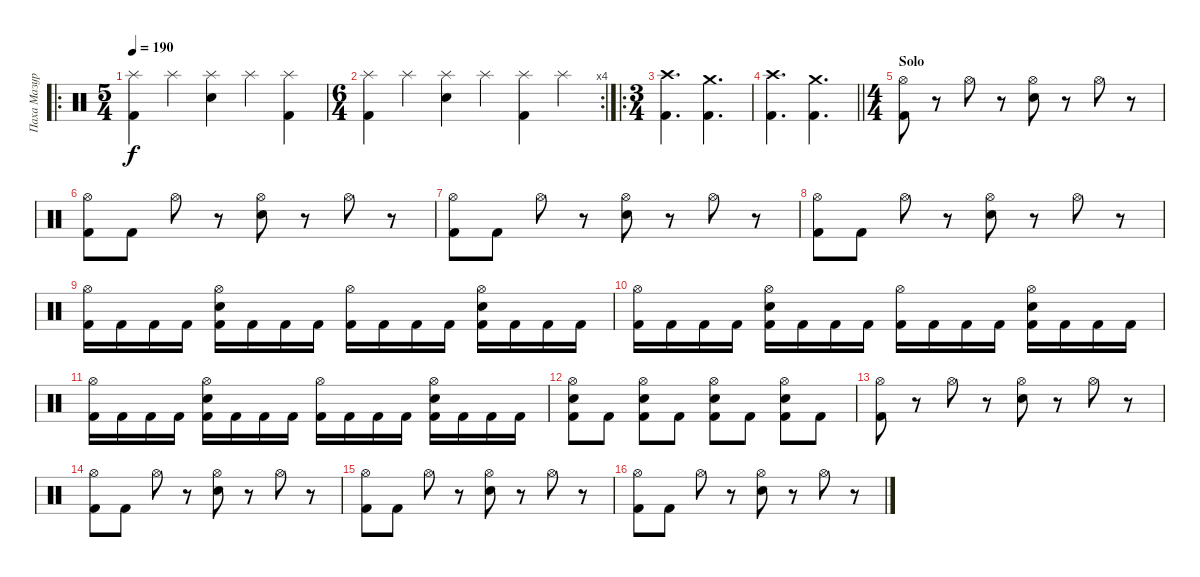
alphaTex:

\track ("Паха Мазуркевич" "Паха Мазур") {instrument percussion}
\staff {score}
\articulation defaults
\ro
\ts (5 4)
\tempo 190
\clef neutral
\ks c
("Splash (hit)" "Kick (hit) 2").4{dy f} "Splash (hit)".4 ("Splash (hit)" "Snare (hit) 2").4 "Splash (hit)".4 ("Splash (hit)" "Kick (hit) 2").4 |
\rc 4
\ts (6 4)
("Splash (hit)" "Kick (hit) 2").4 "Splash (hit)".4 ("Splash (hit)" "Snare (hit) 2").4 "Splash (hit)".4 ("Splash (hit)" "Kick (hit) 2").4 "Splash (hit)".4 |
\ro
\ts (3 4)
("Crash high (hit)" "Kick (hit) 2").4{d} ("Crash medium (hit)" "Kick (hit) 2").4{d} |
\barLineRight lightlight
("Crash high (hit)" "Kick (hit) 2").4{d} ("Crash medium (hit)" "Kick (hit) 2").4{d} |
\ts (4 4)
\section ("" "Solo")
("Hi-Hat (open)" "Kick (hit) 2").8 r.8 "Hi-Hat (open)".8 r.8 ("Hi-Hat (open)" "Snare (hit) 2").8 r.8 "Hi-Hat (open)".8 r.8 |
("Hi-Hat (open)" "Kick (hit) 2").8 "Kick (hit) 2".8 "Hi-Hat (open)".8 r.8 ("Hi-Hat (open)" "Snare (hit) 2").8 r.8 "Hi-Hat (open)".8 r.8 |
("Hi-Hat (open)" "Kick (hit) 2").8 "Kick (hit) 2".8 "Hi-Hat (open)".8 r.8 ("Hi-Hat (open)" "Snare (hit) 2").8 r.8 "Hi-Hat (open)".8 r.8 |
("Hi-Hat (open)" "Kick (hit) 2").8 "Kick (hit) 2".8 "Hi-Hat (open)".8 r.8 ("Hi-Hat (open)" "Snare (hit) 2").8 r.8 "Hi-Hat (open)".8 r.8 |
("Hi-Hat (open)" "Kick (hit) 2").16 "Kick (hit) 2".16 "Kick (hit) 2".16 "Kick (hit) 2".16 ("Hi-Hat (open)" "Snare (hit) 2" "Kick (hit) 2").16 "Kick (hit) 2".16 "Kick (hit) 2".16 "Kick (hit) 2".16 ("Hi-Hat (open)" "Kick (hit) 2").16 "Kick (hit) 2".16 "Kick (hit) 2".16 "Kick (hit) 2".16 ("Hi-Hat (open)" "Snare (hit) 2" "Kick (hit) 2").16 "Kick (hit) 2".16 "Kick (hit) 2".16 "Kick (hit) 2".16 |
("Hi-Hat (open)" "Kick (hit) 2").16 "Kick (hit) 2".16 "Kick (hit) 2".16 "Kick (hit) 2".16 ("Hi-Hat (open)" "Snare (hit) 2" "Kick (hit) 2").16 "Kick (hit) 2".16 "Kick (hit) 2".16 "Kick (hit) 2".16 ("Hi-Hat (open)" "Kick (hit) 2").16 "Kick (hit) 2".16 "Kick (hit) 2".16 "Kick (hit) 2".16 ("Hi-Hat (open)" "Snare (hit) 2" "Kick (hit) 2").16 "Kick (hit) 2".16 "Kick (hit) 2".16 "Kick (hit) 2".16 |
("Hi-Hat (open)" "Kick (hit) 2").16 "Kick (hit) 2".16 "Kick (hit) 2".16 "Kick (hit) 2".16 ("Hi-Hat (open)" "Snare (hit) 2" "Kick (hit) 2").16 "Kick (hit) 2".16 "Kick (hit) 2".16 "Kick (hit) 2".16 ("Hi-Hat (open)" "Kick (hit) 2").16 "Kick (hit) 2".16 "Kick (hit) 2".16 "Kick (hit) 2".16 ("Hi-Hat (open)" "Snare (hit) 2" "Kick (hit) 2").16 "Kick (hit) 2".16 "Kick (hit) 2".16 "Kick (hit) 2".16 |
("Hi-Hat (open)" "Snare (hit) 2" "Kick (hit) 2").8 "Kick (hit) 2".8 ("Hi-Hat (open)" "Snare (hit) 2" "Kick (hit) 2").8 "Kick (hit) 2".8 ("Hi-Hat (open)" "Snare (hit) 2" "Kick (hit) 2").8 "Kick (hit) 2".8 ("Hi-Hat (open)" "Snare (hit) 2" "Kick (hit) 2").8 "Kick (hit) 2".8 |
("Hi-Hat (open)" "Kick (hit) 2").8 r.8 "Hi-Hat (open)".8 r.8 ("Hi-Hat (open)" "Snare (hit) 2").8 r.8 "Hi-Hat (open)".8 r.8 |
("Hi-Hat (open)" "Kick (hit) 2").8 "Kick (hit) 2".8 "Hi-Hat (open)".8 r.8 ("Hi-Hat (open)" "Snare (hit) 2").8 r.8 "Hi-Hat (open)".8 r.8 |
("Hi-Hat (open)" "Kick (hit) 2").8 "Kick (hit) 2".8 "Hi-Hat (open)".8 r.8 ("Hi-Hat (open)" "Snare (hit) 2").8 r.8 "Hi-Hat (open)".8 r.8 |
("Hi-Hat (open)" "Kick (hit) 2").8 "Kick (hit) 2".8 "Hi-Hat (open)".8 r.8 ("Hi-Hat (open)" "Snare (hit) 2").8 r.8 "Hi-Hat (open)".8 r.8
